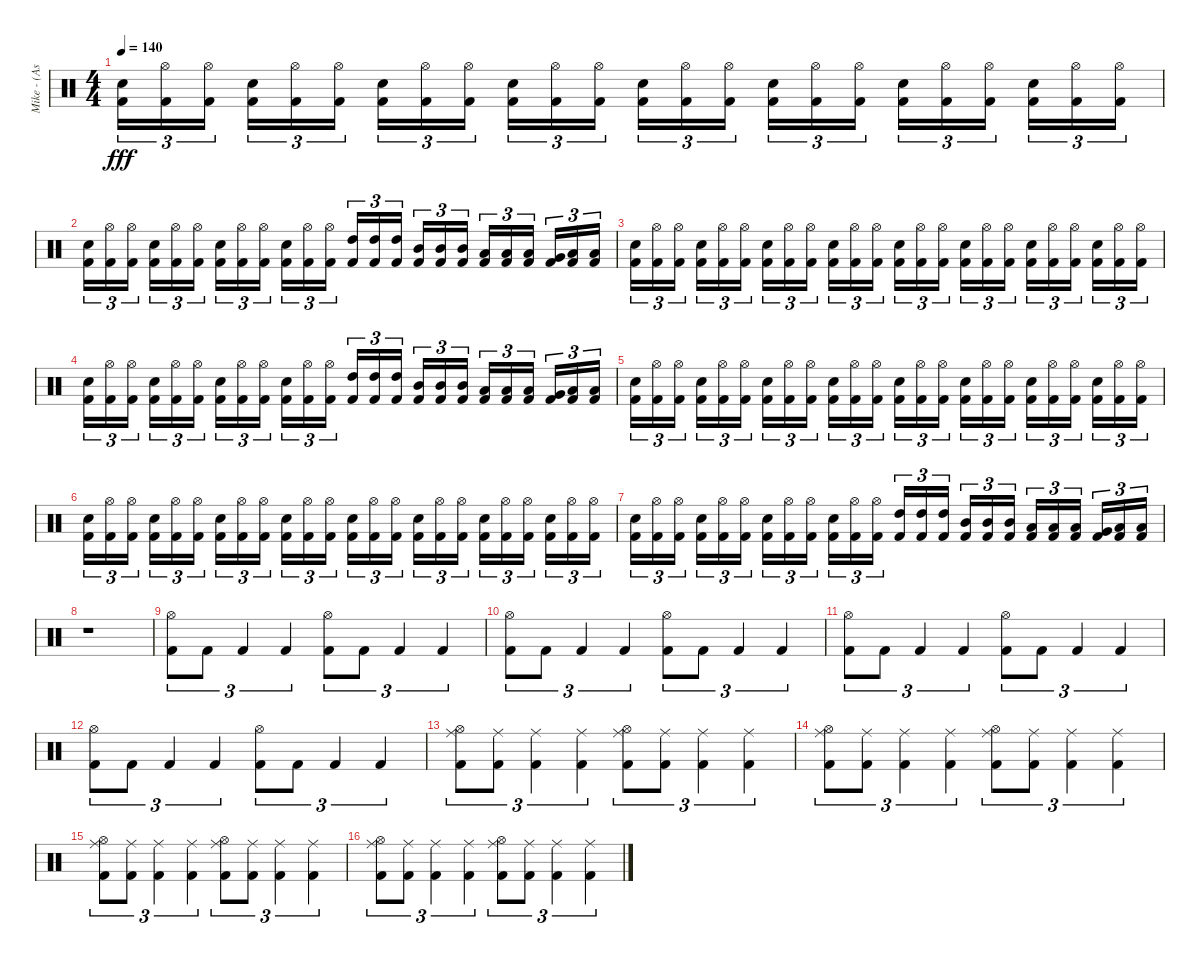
\track ("Mike - (Assault and Battery)" "Mike - (As") {instrument percussion}
\staff {score}
\articulation defaults
\ts (4 4)
\tempo 140
\clef neutral
\ks c
("Electric Snare (hit)" "Kick (hit) 2").16{tu (3 2) dy fff} ("Hi-Hat (open)" "Kick (hit) 2").16{tu (3 2)} ("Hi-Hat (open)" "Kick (hit) 2").16{tu (3 2)} ("Electric Snare (hit)" "Kick (hit) 2").16{tu (3 2)} ("Hi-Hat (open)" "Kick (hit) 2").16{tu (3 2)} ("Hi-Hat (open)" "Kick (hit) 2").16{tu (3 2)} ("Electric Snare (hit)" "Kick (hit) 2").16{tu (3 2)} ("Hi-Hat (open)" "Kick (hit) 2").16{tu (3 2)} ("Hi-Hat (open)" "Kick (hit) 2").16{tu (3 2)} ("Electric Snare (hit)" "Kick (hit) 2").16{tu (3 2)} ("Hi-Hat (open)" "Kick (hit) 2").16{tu (3 2)} ("Hi-Hat (open)" "Kick (hit) 2").16{tu (3 2)} ("Electric Snare (hit)" "Kick (hit) 2").16{tu (3 2)} ("Hi-Hat (open)" "Kick (hit) 2").16{tu (3 2)} ("Hi-Hat (open)" "Kick (hit) 2").16{tu (3 2)} ("Electric Snare (hit)" "Kick (hit) 2").16{tu (3 2)} ("Hi-Hat (open)" "Kick (hit) 2").16{tu (3 2)} ("Hi-Hat (open)" "Kick (hit) 2").16{tu (3 2)} ("Electric Snare (hit)" "Kick (hit) 2").16{tu (3 2)} ("Hi-Hat (open)" "Kick (hit) 2").16{tu (3 2)} ("Hi-Hat (open)" "Kick (hit) 2").16{tu (3 2)} ("Electric Snare (hit)" "Kick (hit) 2").16{tu (3 2)} ("Hi-Hat (open)" "Kick (hit) 2").16{tu (3 2)} ("Hi-Hat (open)" "Kick (hit) 2").16{tu (3 2)} |
("Electric Snare (hit)" "Kick (hit) 2").16{tu (3 2)} ("Hi-Hat (open)" "Kick (hit) 2").16{tu (3 2)} ("Hi-Hat (open)" "Kick (hit) 2").16{tu (3 2)} ("Electric Snare (hit)" "Kick (hit) 2").16{tu (3 2)} ("Hi-Hat (open)" "Kick (hit) 2").16{tu (3 2)} ("Hi-Hat (open)" "Kick (hit) 2").16{tu (3 2)} ("Electric Snare (hit)" "Kick (hit) 2").16{tu (3 2)} ("Hi-Hat (open)" "Kick (hit) 2").16{tu (3 2)} ("Hi-Hat (open)" "Kick (hit) 2").16{tu (3 2)} ("Electric Snare (hit)" "Kick (hit) 2").16{tu (3 2)} ("Hi-Hat (open)" "Kick (hit) 2").16{tu (3 2)} ("Hi-Hat (open)" "Kick (hit) 2").16{tu (3 2)} ("High Tom (hit)" "Kick (hit) 2").16{tu (3 2)} ("High Tom (hit)" "Kick (hit) 2").16{tu (3 2)} ("High Tom (hit)" "Kick (hit) 2").16{tu (3 2)} ("Mid Tom (hit)" "Kick (hit) 2").16{tu (3 2)} ("Mid Tom (hit)" "Kick (hit) 2").16{tu (3 2)} ("Mid Tom (hit)" "Kick (hit) 2").16{tu (3 2)} ("Low Tom (hit)" "Kick (hit) 2").16{tu (3 2)} ("Low Tom (hit)" "Kick (hit) 2").16{tu (3 2)} ("Low Tom (hit)" "Kick (hit) 2").16{tu (3 2)} ("Very Low Tom (hit)" "Kick (hit) 2").16{tu (3 2)} ("Low Floor Tom (hit)" "Kick (hit) 2").16{tu (3 2)} ("Low Floor Tom (hit)" "Kick (hit) 2").16{tu (3 2)} |
("Electric Snare (hit)" "Kick (hit) 2").16{tu (3 2)} ("Hi-Hat (open)" "Kick (hit) 2").16{tu (3 2)} ("Hi-Hat (open)" "Kick (hit) 2").16{tu (3 2)} ("Electric Snare (hit)" "Kick (hit) 2").16{tu (3 2)} ("Hi-Hat (open)" "Kick (hit) 2").16{tu (3 2)} ("Hi-Hat (open)" "Kick (hit) 2").16{tu (3 2)} ("Electric Snare (hit)" "Kick (hit) 2").16{tu (3 2)} ("Hi-Hat (open)" "Kick (hit) 2").16{tu (3 2)} ("Hi-Hat (open)" "Kick (hit) 2").16{tu (3 2)} ("Electric Snare (hit)" "Kick (hit) 2").16{tu (3 2)} ("Hi-Hat (open)" "Kick (hit) 2").16{tu (3 2)} ("Hi-Hat (open)" "Kick (hit) 2").16{tu (3 2)} ("Electric Snare (hit)" "Kick (hit) 2").16{tu (3 2)} ("Hi-Hat (open)" "Kick (hit) 2").16{tu (3 2)} ("Hi-Hat (open)" "Kick (hit) 2").16{tu (3 2)} ("Electric Snare (hit)" "Kick (hit) 2").16{tu (3 2)} ("Hi-Hat (open)" "Kick (hit) 2").16{tu (3 2)} ("Hi-Hat (open)" "Kick (hit) 2").16{tu (3 2)} ("Electric Snare (hit)" "Kick (hit) 2").16{tu (3 2)} ("Hi-Hat (open)" "Kick (hit) 2").16{tu (3 2)} ("Hi-Hat (open)" "Kick (hit) 2").16{tu (3 2)} ("Electric Snare (hit)" "Kick (hit) 2").16{tu (3 2)} ("Hi-Hat (open)" "Kick (hit) 2").16{tu (3 2)} ("Hi-Hat (open)" "Kick (hit) 2").16{tu (3 2)} |
("Electric Snare (hit)" "Kick (hit) 2").16{tu (3 2)} ("Hi-Hat (open)" "Kick (hit) 2").16{tu (3 2)} ("Hi-Hat (open)" "Kick (hit) 2").16{tu (3 2)} ("Electric Snare (hit)" "Kick (hit) 2").16{tu (3 2)} ("Hi-Hat (open)" "Kick (hit) 2").16{tu (3 2)} ("Hi-Hat (open)" "Kick (hit) 2").16{tu (3 2)} ("Electric Snare (hit)" "Kick (hit) 2").16{tu (3 2)} ("Hi-Hat (open)" "Kick (hit) 2").16{tu (3 2)} ("Hi-Hat (open)" "Kick (hit) 2").16{tu (3 2)} ("Electric Snare (hit)" "Kick (hit) 2").16{tu (3 2)} ("Hi-Hat (open)" "Kick (hit) 2").16{tu (3 2)} ("Hi-Hat (open)" "Kick (hit) 2").16{tu (3 2)} ("High Tom (hit)" "Kick (hit) 2").16{tu (3 2)} ("High Tom (hit)" "Kick (hit) 2").16{tu (3 2)} ("High Tom (hit)" "Kick (hit) 2").16{tu (3 2)} ("Mid Tom (hit)" "Kick (hit) 2").16{tu (3 2)} ("Mid Tom (hit)" "Kick (hit) 2").16{tu (3 2)} ("Mid Tom (hit)" "Kick (hit) 2").16{tu (3 2)} ("Low Tom (hit)" "Kick (hit) 2").16{tu (3 2)} ("Low Tom (hit)" "Kick (hit) 2").16{tu (3 2)} ("Low Tom (hit)" "Kick (hit) 2").16{tu (3 2)} ("Very Low Tom (hit)" "Kick (hit) 2").16{tu (3 2)} ("Low Floor Tom (hit)" "Kick (hit) 2").16{tu (3 2)} ("Low Floor Tom (hit)" "Kick (hit) 2").16{tu (3 2)} |
("Electric Snare (hit)" "Kick (hit) 2").16{tu (3 2)} ("Hi-Hat (open)" "Kick (hit) 2").16{tu (3 2)} ("Hi-Hat (open)" "Kick (hit) 2").16{tu (3 2)} ("Electric Snare (hit)" "Kick (hit) 2").16{tu (3 2)} ("Hi-Hat (open)" "Kick (hit) 2").16{tu (3 2)} ("Hi-Hat (open)" "Kick (hit) 2").16{tu (3 2)} ("Electric Snare (hit)" "Kick (hit) 2").16{tu (3 2)} ("Hi-Hat (open)" "Kick (hit) 2").16{tu (3 2)} ("Hi-Hat (open)" "Kick (hit) 2").16{tu (3 2)} ("Electric Snare (hit)" "Kick (hit) 2").16{tu (3 2)} ("Hi-Hat (open)" "Kick (hit) 2").16{tu (3 2)} ("Hi-Hat (open)" "Kick (hit) 2").16{tu (3 2)} ("Electric Snare (hit)" "Kick (hit) 2").16{tu (3 2)} ("Hi-Hat (open)" "Kick (hit) 2").16{tu (3 2)} ("Hi-Hat (open)" "Kick (hit) 2").16{tu (3 2)} ("Electric Snare (hit)" "Kick (hit) 2").16{tu (3 2)} ("Hi-Hat (open)" "Kick (hit) 2").16{tu (3 2)} ("Hi-Hat (open)" "Kick (hit) 2").16{tu (3 2)} ("Electric Snare (hit)" "Kick (hit) 2").16{tu (3 2)} ("Hi-Hat (open)" "Kick (hit) 2").16{tu (3 2)} ("Hi-Hat (open)" "Kick (hit) 2").16{tu (3 2)} ("Electric Snare (hit)" "Kick (hit) 2").16{tu (3 2)} ("Hi-Hat (open)" "Kick (hit) 2").16{tu (3 2)} ("Hi-Hat (open)" "Kick (hit) 2").16{tu (3 2)} |
("Electric Snare (hit)" "Kick (hit) 2").16{tu (3 2)} ("Hi-Hat (open)" "Kick (hit) 2").16{tu (3 2)} ("Hi-Hat (open)" "Kick (hit) 2").16{tu (3 2)} ("Electric Snare (hit)" "Kick (hit) 2").16{tu (3 2)} ("Hi-Hat (open)" "Kick (hit) 2").16{tu (3 2)} ("Hi-Hat (open)" "Kick (hit) 2").16{tu (3 2)} ("Electric Snare (hit)" "Kick (hit) 2").16{tu (3 2)} ("Hi-Hat (open)" "Kick (hit) 2").16{tu (3 2)} ("Hi-Hat (open)" "Kick (hit) 2").16{tu (3 2)} ("Electric Snare (hit)" "Kick (hit) 2").16{tu (3 2)} ("Hi-Hat (open)" "Kick (hit) 2").16{tu (3 2)} ("Hi-Hat (open)" "Kick (hit) 2").16{tu (3 2)} ("Electric Snare (hit)" "Kick (hit) 2").16{tu (3 2)} ("Hi-Hat (open)" "Kick (hit) 2").16{tu (3 2)} ("Hi-Hat (open)" "Kick (hit) 2").16{tu (3 2)} ("Electric Snare (hit)" "Kick (hit) 2").16{tu (3 2)} ("Hi-Hat (open)" "Kick (hit) 2").16{tu (3 2)} ("Hi-Hat (open)" "Kick (hit) 2").16{tu (3 2)} ("Electric Snare (hit)" "Kick (hit) 2").16{tu (3 2)} ("Hi-Hat (open)" "Kick (hit) 2").16{tu (3 2)} ("Hi-Hat (open)" "Kick (hit) 2").16{tu (3 2)} ("Electric Snare (hit)" "Kick (hit) 2").16{tu (3 2)} ("Hi-Hat (open)" "Kick (hit) 2").16{tu (3 2)} ("Hi-Hat (open)" "Kick (hit) 2").16{tu (3 2)} |
("Electric Snare (hit)" "Kick (hit) 2").16{tu (3 2)} ("Hi-Hat (open)" "Kick (hit) 2").16{tu (3 2)} ("Hi-Hat (open)" "Kick (hit) 2").16{tu (3 2)} ("Electric Snare (hit)" "Kick (hit) 2").16{tu (3 2)} ("Hi-Hat (open)" "Kick (hit) 2").16{tu (3 2)} ("Hi-Hat (open)" "Kick (hit) 2").16{tu (3 2)} ("Electric Snare (hit)" "Kick (hit) 2").16{tu (3 2)} ("Hi-Hat (open)" "Kick (hit) 2").16{tu (3 2)} ("Hi-Hat (open)" "Kick (hit) 2").16{tu (3 2)} ("Electric Snare (hit)" "Kick (hit) 2").16{tu (3 2)} ("Hi-Hat (open)" "Kick (hit) 2").16{tu (3 2)} ("Hi-Hat (open)" "Kick (hit) 2").16{tu (3 2)} ("High Tom (hit)" "Kick (hit) 2").16{tu (3 2)} ("High Tom (hit)" "Kick (hit) 2").16{tu (3 2)} ("High Tom (hit)" "Kick (hit) 2").16{tu (3 2)} ("Mid Tom (hit)" "Kick (hit) 2").16{tu (3 2)} ("Mid Tom (hit)" "Kick (hit) 2").16{tu (3 2)} ("Mid Tom (hit)" "Kick (hit) 2").16{tu (3 2)} ("Low Tom (hit)" "Kick (hit) 2").16{tu (3 2)} ("Low Tom (hit)" "Kick (hit) 2").16{tu (3 2)} ("Low Tom (hit)" "Kick (hit) 2").16{tu (3 2)} ("Very Low Tom (hit)" "Kick (hit) 2").16{tu (3 2)} ("Low Floor Tom (hit)" "Kick (hit) 2").16{tu (3 2)} ("Low Floor Tom (hit)" "Kick (hit) 2").16{tu (3 2)} |
r.1 |
("Hi-Hat (open)" "Kick (hit) 2").8{tu (3 2)} "Kick (hit) 2".8{tu (3 2)} "Kick (hit) 2".4{tu (3 2)} "Kick (hit) 2".4{tu (3 2)} ("Hi-Hat (open)" "Kick (hit) 2").8{tu (3 2)} "Kick (hit) 2".8{tu (3 2)} "Kick (hit) 2".4{tu (3 2)} "Kick (hit) 2".4{tu (3 2)} |
("Hi-Hat (open)" "Kick (hit) 2").8{tu (3 2)} "Kick (hit) 2".8{tu (3 2)} "Kick (hit) 2".4{tu (3 2)} "Kick (hit) 2".4{tu (3 2)} ("Hi-Hat (open)" "Kick (hit) 2").8{tu (3 2)} "Kick (hit) 2".8{tu (3 2)} "Kick (hit) 2".4{tu (3 2)} "Kick (hit) 2".4{tu (3 2)} |
("Hi-Hat (open)" "Kick (hit) 2").8{tu (3 2)} "Kick (hit) 2".8{tu (3 2)} "Kick (hit) 2".4{tu (3 2)} "Kick (hit) 2".4{tu (3 2)} ("Hi-Hat (open)" "Kick (hit) 2").8{tu (3 2)} "Kick (hit) 2".8{tu (3 2)} "Kick (hit) 2".4{tu (3 2)} "Kick (hit) 2".4{tu (3 2)} |
("Hi-Hat (open)" "Kick (hit) 2").8{tu (3 2)} "Kick (hit) 2".8{tu (3 2)} "Kick (hit) 2".4{tu (3 2)} "Kick (hit) 2".4{tu (3 2)} ("Hi-Hat (open)" "Kick (hit) 2").8{tu (3 2)} "Kick (hit) 2".8{tu (3 2)} "Kick (hit) 2".4{tu (3 2)} "Kick (hit) 2".4{tu (3 2)} |
("Hi-Hat (open)" "Ride (middle)" "Kick (hit) 2").8{tu (3 2)} ("Ride (middle)" "Kick (hit) 2").8{tu (3 2)} ("Ride (middle)" "Kick (hit) 2").4{tu (3 2)} ("Ride (middle)" "Kick (hit) 2").4{tu (3 2)} ("Hi-Hat (open)" "Ride (middle)" "Kick (hit) 2").8{tu (3 2)} ("Ride (middle)" "Kick (hit) 2").8{tu (3 2)} ("Ride (middle)" "Kick (hit) 2").4{tu (3 2)} ("Ride (middle)" "Kick (hit) 2").4{tu (3 2)} |
("Hi-Hat (open)" "Ride (middle)" "Kick (hit) 2").8{tu (3 2)} ("Ride (middle)" "Kick (hit) 2").8{tu (3 2)} ("Ride (middle)" "Kick (hit) 2").4{tu (3 2)} ("Ride (middle)" "Kick (hit) 2").4{tu (3 2)} ("Hi-Hat (open)" "Ride (middle)" "Kick (hit) 2").8{tu (3 2)} ("Ride (middle)" "Kick (hit) 2").8{tu (3 2)} ("Ride (middle)" "Kick (hit) 2").4{tu (3 2)} ("Ride (middle)" "Kick (hit) 2").4{tu (3 2)} |
("Hi-Hat (open)" "Ride (middle)" "Kick (hit) 2").8{tu (3 2)} ("Ride (middle)" "Kick (hit) 2").8{tu (3 2)} ("Ride (middle)" "Kick (hit) 2").4{tu (3 2)} ("Ride (middle)" "Kick (hit) 2").4{tu (3 2)} ("Hi-Hat (open)" "Ride (middle)" "Kick (hit) 2").8{tu (3 2)} ("Ride (middle)" "Kick (hit) 2").8{tu (3 2)} ("Ride (middle)" "Kick (hit) 2").4{tu (3 2)} ("Ride (middle)" "Kick (hit) 2").4{tu (3 2)} |
("Hi-Hat (open)" "Ride (middle)" "Kick (hit) 2").8{tu (3 2)} ("Ride (middle)" "Kick (hit) 2").8{tu (3 2)} ("Ride (middle)" "Kick (hit) 2").4{tu (3 2)} ("Ride (middle)" "Kick (hit) 2").4{tu (3 2)} ("Hi-Hat (open)" "Ride (middle)" "Kick (hit) 2").8{tu (3 2)} ("Ride (middle)" "Kick (hit) 2").8{tu (3 2)} ("Ride (middle)" "Kick (hit) 2").4{tu (3 2)} ("Ride (middle)" "Kick (hit) 2").4{tu (3 2)}
